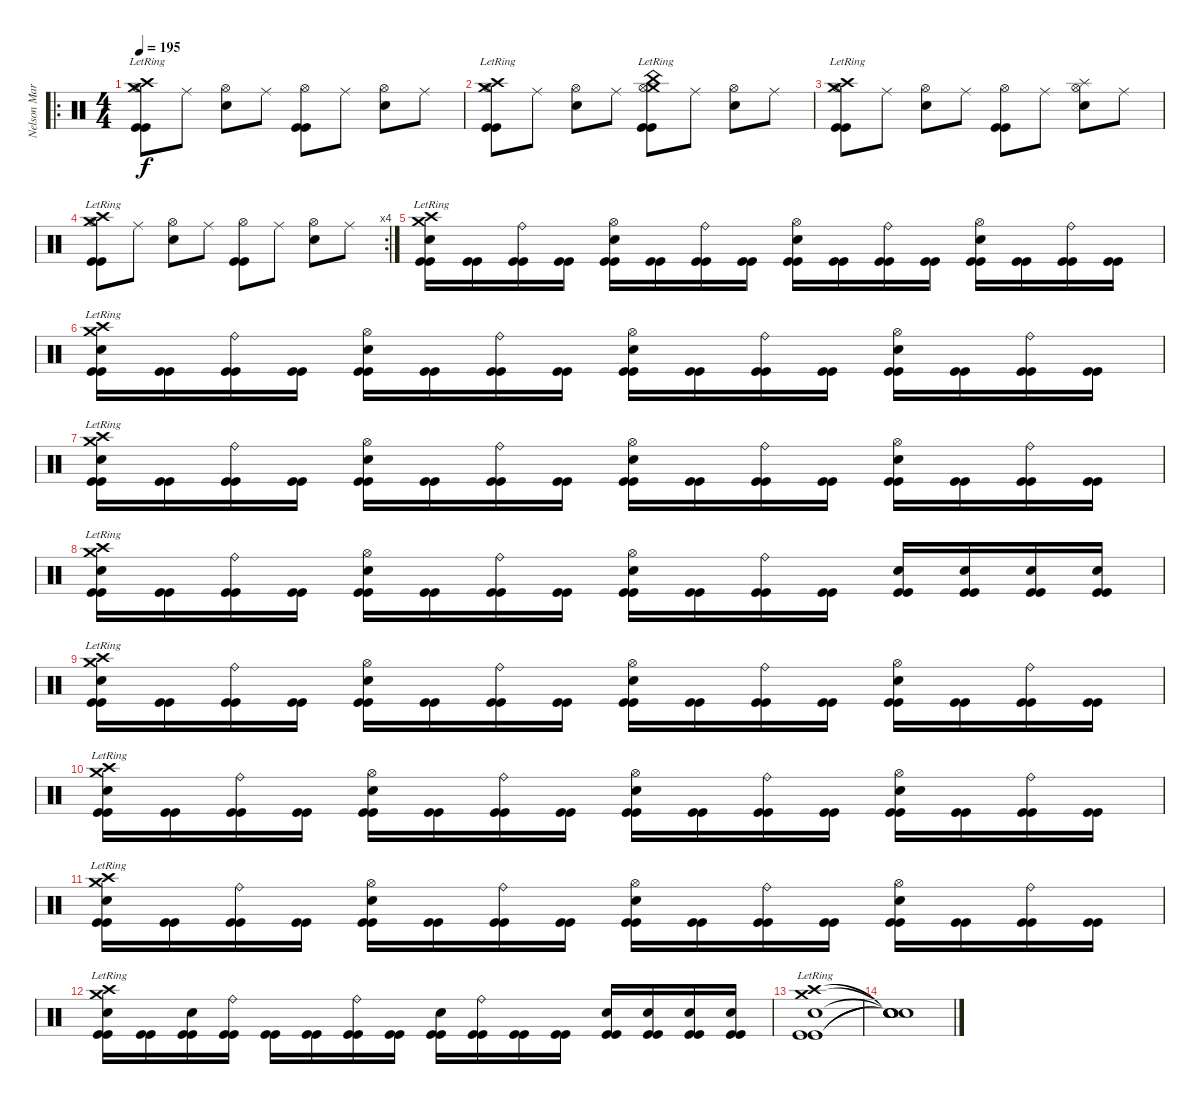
\track ("Nelson Maria" "Nelson Mar") {instrument percussion}
\staff {score}
\articulation defaults
\ro
\ts (4 4)
\tempo 195
\clef neutral
\ks c
("Crash high (hit)"{lr} "Crash medium (hit)"{lr} "Hi-Hat (open)" "Kick (hit)" "Kick (hit)").8{dy f} "Ride (middle)".8 ("Snare (hit) 2" "Hi-Hat (open)").8 "Ride (middle)".8 ("Hi-Hat (open)" "Kick (hit)" "Kick (hit)").8 "Ride (middle)".8 ("Snare (hit) 2" "Hi-Hat (open)").8 "Ride (middle)".8 |
("Crash high (hit)"{lr} "Crash medium (hit)"{lr} "Hi-Hat (open)" "Kick (hit)" "Kick (hit)").8 "Ride (middle)".8 ("Snare (hit) 2" "Hi-Hat (open)").8 "Ride (middle)".8 ("Crash medium (hit)"{lr} "China (hit)"{lr} "Hi-Hat (open)" "Kick (hit)" "Kick (hit)").8 "Ride (middle)".8 ("Snare (hit) 2" "Hi-Hat (open)").8 "Ride (middle)".8 |
("Crash high (hit)"{lr} "Crash medium (hit)"{lr} "Hi-Hat (open)" "Kick (hit)" "Kick (hit)").8 "Ride (middle)".8 ("Snare (hit) 2" "Hi-Hat (open)").8 "Ride (middle)".8 ("Hi-Hat (open)" "Kick (hit)" "Kick (hit)").8 "Ride (middle)".8 ("Splash (hit)" "Snare (hit) 2" "Hi-Hat (open)").8 "Ride (middle)".8 |
\rc 4
("Crash high (hit)"{lr} "Crash medium (hit)"{lr} "Hi-Hat (open)" "Kick (hit)" "Kick (hit)").8 "Ride (middle)".8 ("Snare (hit) 2" "Hi-Hat (open)").8 "Ride (middle)".8 ("Hi-Hat (open)" "Kick (hit)" "Kick (hit)").8 "Ride (middle)".8 ("Snare (hit) 2" "Hi-Hat (open)").8 "Ride (middle)".8 |
("Crash high (hit)"{lr} "Crash medium (hit)"{lr} "Snare (hit) 2" "Kick (hit)" "Kick (hit)").16 ("Kick (hit)" "Kick (hit)").16 ("Ride (bell)" "Kick (hit)" "Kick (hit)").16 ("Kick (hit)" "Kick (hit)").16 ("Snare (hit) 2" "Hi-Hat (open)" "Kick (hit)" "Kick (hit)").16 ("Kick (hit)" "Kick (hit)").16 ("Ride (bell)" "Kick (hit)" "Kick (hit)").16 ("Kick (hit)" "Kick (hit)").16 ("Snare (hit) 2" "Hi-Hat (open)" "Kick (hit)" "Kick (hit)").16 ("Kick (hit)" "Kick (hit)").16 ("Ride (bell)" "Kick (hit)" "Kick (hit)").16 ("Kick (hit)" "Kick (hit)").16 ("Snare (hit) 2" "Hi-Hat (open)" "Kick (hit)" "Kick (hit)").16 ("Kick (hit)" "Kick (hit)").16 ("Ride (bell)" "Kick (hit)" "Kick (hit)").16 ("Kick (hit)" "Kick (hit)").16 |
("Crash high (hit)"{lr} "Crash medium (hit)"{lr} "Snare (hit) 2" "Kick (hit)" "Kick (hit)").16 ("Kick (hit)" "Kick (hit)").16 ("Ride (bell)" "Kick (hit)" "Kick (hit)").16 ("Kick (hit)" "Kick (hit)").16 ("Snare (hit) 2" "Hi-Hat (open)" "Kick (hit)" "Kick (hit)").16 ("Kick (hit)" "Kick (hit)").16 ("Ride (bell)" "Kick (hit)" "Kick (hit)").16 ("Kick (hit)" "Kick (hit)").16 ("Snare (hit) 2" "Hi-Hat (open)" "Kick (hit)" "Kick (hit)").16 ("Kick (hit)" "Kick (hit)").16 ("Ride (bell)" "Kick (hit)" "Kick (hit)").16 ("Kick (hit)" "Kick (hit)").16 ("Snare (hit) 2" "Hi-Hat (open)" "Kick (hit)" "Kick (hit)").16 ("Kick (hit)" "Kick (hit)").16 ("Ride (bell)" "Kick (hit)" "Kick (hit)").16 ("Kick (hit)" "Kick (hit)").16 |
("Crash high (hit)"{lr} "Crash medium (hit)"{lr} "Snare (hit) 2" "Kick (hit)" "Kick (hit)").16 ("Kick (hit)" "Kick (hit)").16 ("Ride (bell)" "Kick (hit)" "Kick (hit)").16 ("Kick (hit)" "Kick (hit)").16 ("Snare (hit) 2" "Hi-Hat (open)" "Kick (hit)" "Kick (hit)").16 ("Kick (hit)" "Kick (hit)").16 ("Ride (bell)" "Kick (hit)" "Kick (hit)").16 ("Kick (hit)" "Kick (hit)").16 ("Snare (hit) 2" "Hi-Hat (open)" "Kick (hit)" "Kick (hit)").16 ("Kick (hit)" "Kick (hit)").16 ("Ride (bell)" "Kick (hit)" "Kick (hit)").16 ("Kick (hit)" "Kick (hit)").16 ("Snare (hit) 2" "Hi-Hat (open)" "Kick (hit)" "Kick (hit)").16 ("Kick (hit)" "Kick (hit)").16 ("Ride (bell)" "Kick (hit)" "Kick (hit)").16 ("Kick (hit)" "Kick (hit)").16 |
("Crash high (hit)"{lr} "Crash medium (hit)"{lr} "Snare (hit) 2" "Kick (hit)" "Kick (hit)").16 ("Kick (hit)" "Kick (hit)").16 ("Ride (bell)" "Kick (hit)" "Kick (hit)").16 ("Kick (hit)" "Kick (hit)").16 ("Snare (hit) 2" "Hi-Hat (open)" "Kick (hit)" "Kick (hit)").16 ("Kick (hit)" "Kick (hit)").16 ("Ride (bell)" "Kick (hit)" "Kick (hit)").16 ("Kick (hit)" "Kick (hit)").16 ("Snare (hit) 2" "Hi-Hat (open)" "Kick (hit)" "Kick (hit)").16 ("Kick (hit)" "Kick (hit)").16 ("Ride (bell)" "Kick (hit)" "Kick (hit)").16 ("Kick (hit)" "Kick (hit)").16 ("Snare (hit) 2" "Kick (hit)" "Kick (hit)").16 ("Snare (hit) 2" "Kick (hit)" "Kick (hit)").16 ("Snare (hit) 2" "Kick (hit)" "Kick (hit)").16 ("Snare (hit) 2" "Kick (hit)" "Kick (hit)").16 |
("Crash high (hit)"{lr} "Crash medium (hit)"{lr} "Snare (hit) 2" "Kick (hit)" "Kick (hit)").16 ("Kick (hit)" "Kick (hit)").16 ("Ride (bell)" "Kick (hit)" "Kick (hit)").16 ("Kick (hit)" "Kick (hit)").16 ("Snare (hit) 2" "Hi-Hat (open)" "Kick (hit)" "Kick (hit)").16 ("Kick (hit)" "Kick (hit)").16 ("Ride (bell)" "Kick (hit)" "Kick (hit)").16 ("Kick (hit)" "Kick (hit)").16 ("Snare (hit) 2" "Hi-Hat (open)" "Kick (hit)" "Kick (hit)").16 ("Kick (hit)" "Kick (hit)").16 ("Ride (bell)" "Kick (hit)" "Kick (hit)").16 ("Kick (hit)" "Kick (hit)").16 ("Snare (hit) 2" "Hi-Hat (open)" "Kick (hit)" "Kick (hit)").16 ("Kick (hit)" "Kick (hit)").16 ("Ride (bell)" "Kick (hit)" "Kick (hit)").16 ("Kick (hit)" "Kick (hit)").16 |
("Crash high (hit)"{lr} "Crash medium (hit)"{lr} "Snare (hit) 2" "Kick (hit)" "Kick (hit)").16 ("Kick (hit)" "Kick (hit)").16 ("Ride (bell)" "Kick (hit)" "Kick (hit)").16 ("Kick (hit)" "Kick (hit)").16 ("Snare (hit) 2" "Hi-Hat (open)" "Kick (hit)" "Kick (hit)").16 ("Kick (hit)" "Kick (hit)").16 ("Ride (bell)" "Kick (hit)" "Kick (hit)").16 ("Kick (hit)" "Kick (hit)").16 ("Snare (hit) 2" "Hi-Hat (open)" "Kick (hit)" "Kick (hit)").16 ("Kick (hit)" "Kick (hit)").16 ("Ride (bell)" "Kick (hit)" "Kick (hit)").16 ("Kick (hit)" "Kick (hit)").16 ("Snare (hit) 2" "Hi-Hat (open)" "Kick (hit)" "Kick (hit)").16 ("Kick (hit)" "Kick (hit)").16 ("Ride (bell)" "Kick (hit)" "Kick (hit)").16 ("Kick (hit)" "Kick (hit)").16 |
("Crash high (hit)"{lr} "Crash medium (hit)"{lr} "Snare (hit) 2" "Kick (hit)" "Kick (hit)").16 ("Kick (hit)" "Kick (hit)").16 ("Ride (bell)" "Kick (hit)" "Kick (hit)").16 ("Kick (hit)" "Kick (hit)").16 ("Snare (hit) 2" "Hi-Hat (open)" "Kick (hit)" "Kick (hit)").16 ("Kick (hit)" "Kick (hit)").16 ("Ride (bell)" "Kick (hit)" "Kick (hit)").16 ("Kick (hit)" "Kick (hit)").16 ("Snare (hit) 2" "Hi-Hat (open)" "Kick (hit)" "Kick (hit)").16 ("Kick (hit)" "Kick (hit)").16 ("Ride (bell)" "Kick (hit)" "Kick (hit)").16 ("Kick (hit)" "Kick (hit)").16 ("Snare (hit) 2" "Hi-Hat (open)" "Kick (hit)" "Kick (hit)").16 ("Kick (hit)" "Kick (hit)").16 ("Ride (bell)" "Kick (hit)" "Kick (hit)").16 ("Kick (hit)" "Kick (hit)").16 |
("Crash high (hit)"{lr} "Crash medium (hit)"{lr} "Snare (hit) 2" "Kick (hit)" "Kick (hit)").16 ("Kick (hit)" "Kick (hit)").16 ("Snare (hit) 2" "Kick (hit)" "Kick (hit)").16 ("Ride (bell)" "Kick (hit)" "Kick (hit)").16 ("Kick (hit)" "Kick (hit)").16 ("Kick (hit)" "Kick (hit)").16 ("Ride (bell)" "Kick (hit)" "Kick (hit)").16 ("Kick (hit)" "Kick (hit)").16 ("Snare (hit) 2" "Kick (hit)" "Kick (hit)").16 ("Ride (bell)" "Kick (hit)" "Kick (hit)").16 ("Kick (hit)" "Kick (hit)").16 ("Kick (hit)" "Kick (hit)").16 ("Snare (hit) 2" "Kick (hit)" "Kick (hit)").16 ("Snare (hit) 2" "Kick (hit)" "Kick (hit)").16 ("Snare (hit) 2" "Kick (hit)" "Kick (hit)").16 ("Snare (hit) 2" "Kick (hit)" "Kick (hit)").16 |
("Crash high (hit)"{lr} "Crash medium (hit)"{lr} "Snare (hit) 2" "Kick (hit)" "Kick (hit)").1 |
("Snare (hit)"{t} "Snare (hit)"{t} "Snare (hit)"{t} "Snare (hit)"{t} "Snare (hit)"{t}).1
